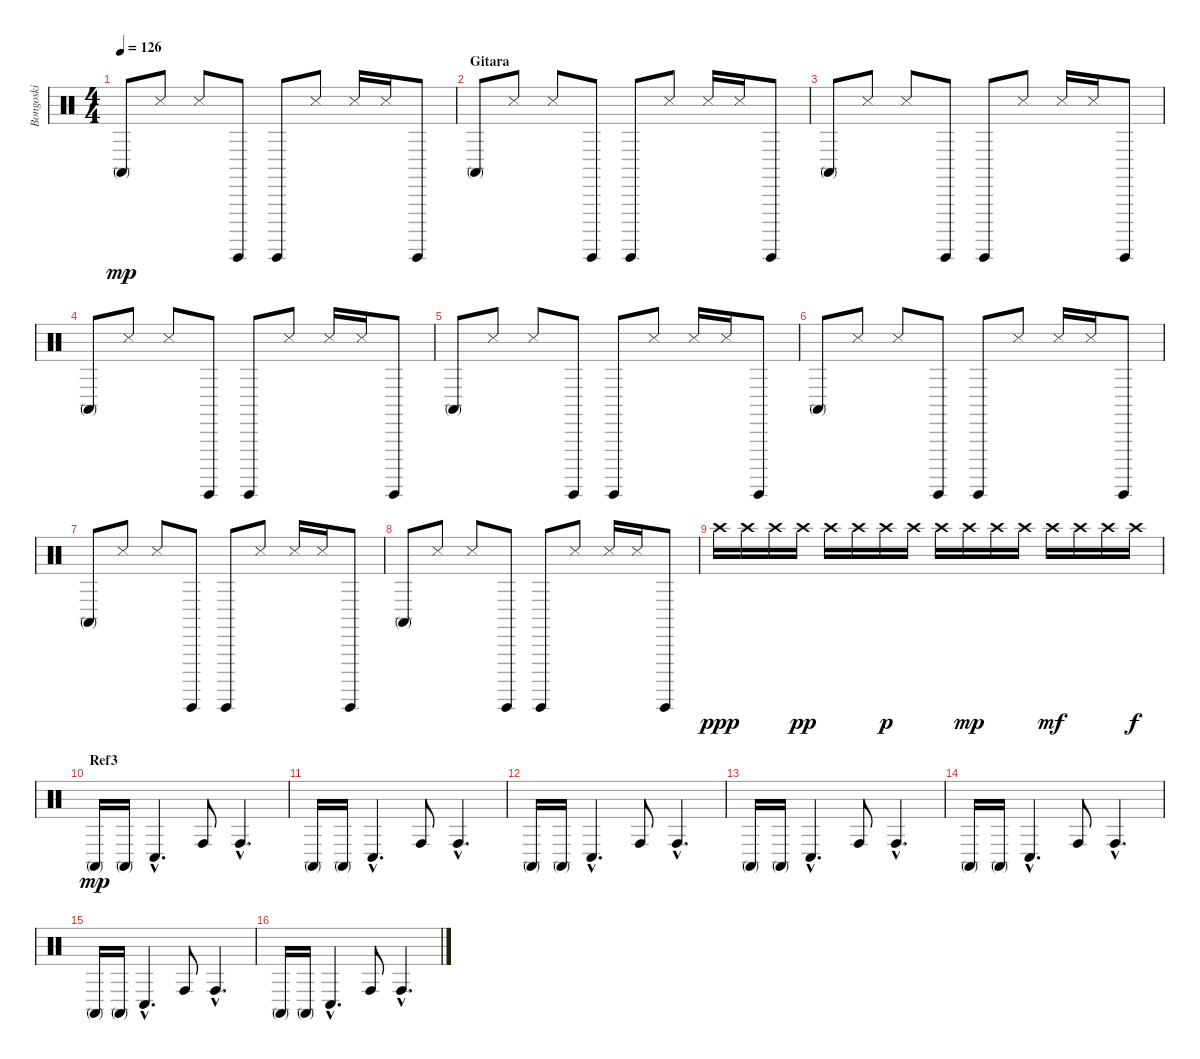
\track ("Bongoski" "Bongoski") {instrument percussion}
\staff {score}
\articulation defaults
\ts (4 4)
\tempo 126
\clef neutral
\ks c "Conga high (mute)".8{dy mp} "Snare (side stick) 3".8 "Snare (side stick) 3".8 "Guiro (hit)".8 "Guiro (hit)".8 "Snare (side stick) 3".8 "Snare (side stick) 3".16 "Snare (side stick) 3".16 "Guiro (hit)".8
|
\section ("" "Gitara")
"Conga high (mute)".8 "Snare (side stick) 3".8 "Snare (side stick) 3".8 "Guiro (hit)".8 "Guiro (hit)".8 "Snare (side stick) 3".8 "Snare (side stick) 3".16 "Snare (side stick) 3".16 "Guiro (hit)".8 |
"Conga high (mute)".8 "Snare (side stick) 3".8 "Snare (side stick) 3".8 "Guiro (hit)".8 "Guiro (hit)".8 "Snare (side stick) 3".8 "Snare (side stick) 3".16 "Snare (side stick) 3".16 "Guiro (hit)".8 |
"Conga high (mute)".8 "Snare (side stick) 3".8 "Snare (side stick) 3".8 "Guiro (hit)".8 "Guiro (hit)".8 "Snare (side stick) 3".8 "Snare (side stick) 3".16 "Snare (side stick) 3".16 "Guiro (hit)".8 |
"Conga high (mute)".8 "Snare (side stick) 3".8 "Snare (side stick) 3".8 "Guiro (hit)".8 "Guiro (hit)".8 "Snare (side stick) 3".8 "Snare (side stick) 3".16 "Snare (side stick) 3".16 "Guiro (hit)".8 |
"Conga high (mute)".8 "Snare (side stick) 3".8 "Snare (side stick) 3".8 "Guiro (hit)".8 "Guiro (hit)".8 "Snare (side stick) 3".8 "Snare (side stick) 3".16 "Snare (side stick) 3".16 "Guiro (hit)".8 |
"Conga high (mute)".8 "Snare (side stick) 3".8 "Snare (side stick) 3".8 "Guiro (hit)".8 "Guiro (hit)".8 "Snare (side stick) 3".8 "Snare (side stick) 3".16 "Snare (side stick) 3".16 "Guiro (hit)".8 |
"Conga high (mute)".8 "Snare (side stick) 3".8 "Snare (side stick) 3".8 "Guiro (hit)".8 "Guiro (hit)".8 "Snare (side stick) 3".8 "Snare (side stick) 3".16 "Snare (side stick) 3".16 "Guiro (hit)".8 |
"Crash high (hit)".16{dy ppp} "Crash high (hit)".16 "Crash high (hit)".16 "Crash high (hit)".16{dy pp} "Crash high (hit)".16 "Crash high (hit)".16 "Crash high (hit)".16{dy p} "Crash high (hit)".16 "Crash high (hit)".16 "Crash high (hit)".16{dy mp} "Crash high (hit)".16 "Crash high (hit)".16 "Crash high (hit)".16{dy mf} "Crash high (hit)".16 "Crash high (hit)".16 "Crash high (hit)".16{dy f} |
\section ("" "Ref3")
"Conga high (mute)".16{dy mp} "Conga high (mute)".16 "Conga low (hit)"{hac}.4{d} "Conga high (hit)".8 "Conga high (hit)"{hac}.4{d} |
"Conga high (mute)".16 "Conga high (mute)".16 "Conga low (hit)"{hac}.4{d} "Conga high (hit)".8 "Conga high (hit)"{hac}.4{d} |
"Conga high (mute)".16 "Conga high (mute)".16 "Conga low (hit)"{hac}.4{d} "Conga high (hit)".8 "Conga high (hit)"{hac}.4{d} |
"Conga high (mute)".16 "Conga high (mute)".16 "Conga low (hit)"{hac}.4{d} "Conga high (hit)".8 "Conga high (hit)"{hac}.4{d} |
"Conga high (mute)".16 "Conga high (mute)".16 "Conga low (hit)"{hac}.4{d} "Conga high (hit)".8 "Conga high (hit)"{hac}.4{d} |
"Conga high (mute)".16 "Conga high (mute)".16 "Conga low (hit)"{hac}.4{d} "Conga high (hit)".8 "Conga high (hit)"{hac}.4{d} |
"Conga high (mute)".16 "Conga high (mute)".16 "Conga low (hit)"{hac}.4{d} "Conga high (hit)".8 "Conga high (hit)"{hac}.4{d}
